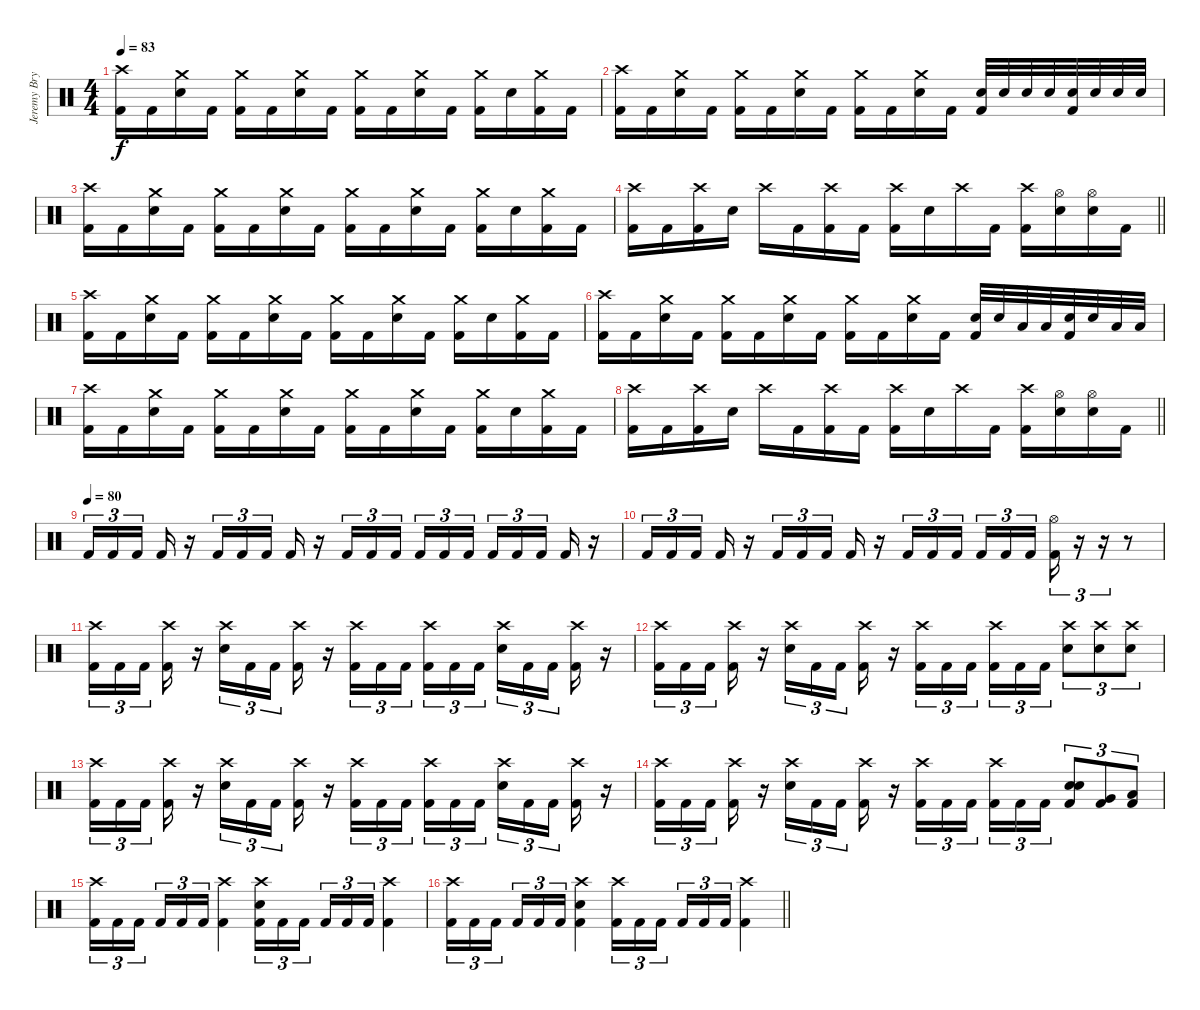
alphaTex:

\track ("Jeremy Bryan - Drums" "Jeremy Bry") {instrument percussion}
\staff {score}
\articulation defaults
\ts (4 4)
\tempo 83
\clef neutral
\ks c
("Crash high (hit)" "Kick (hit) 2").16{dy f} "Kick (hit) 2".16 ("Crash medium (hit)" "Electric Snare (hit)").16 "Kick (hit) 2".16 ("Crash medium (hit)" "Kick (hit) 2").16 "Kick (hit) 2".16 ("Crash medium (hit)" "Electric Snare (hit)").16 "Kick (hit) 2".16 ("Crash medium (hit)" "Kick (hit) 2").16 "Kick (hit) 2".16 ("Crash medium (hit)" "Electric Snare (hit)").16 "Kick (hit) 2".16 ("Crash medium (hit)" "Kick (hit) 2").16 "Electric Snare (hit)".16 ("Crash medium (hit)" "Kick (hit) 2").16 "Kick (hit) 2".16 |
("Crash high (hit)" "Kick (hit) 2").16 "Kick (hit) 2".16 ("Crash medium (hit)" "Electric Snare (hit)").16 "Kick (hit) 2".16 ("Crash medium (hit)" "Kick (hit) 2").16 "Kick (hit) 2".16 ("Crash medium (hit)" "Electric Snare (hit)").16 "Kick (hit) 2".16 ("Crash medium (hit)" "Kick (hit) 2").16 "Kick (hit) 2".16 ("Crash medium (hit)" "Electric Snare (hit)").16 "Kick (hit) 2".16 ("Electric Snare (hit)" "Kick (hit) 2").32 "Electric Snare (hit)".32 "Electric Snare (hit)".32 "Electric Snare (hit)".32 ("Electric Snare (hit)" "Kick (hit) 2").32 "Electric Snare (hit)".32 "Electric Snare (hit)".32 "Electric Snare (hit)".32 |
("Crash high (hit)" "Kick (hit) 2").16 "Kick (hit) 2".16 ("Crash medium (hit)" "Electric Snare (hit)").16 "Kick (hit) 2".16 ("Crash medium (hit)" "Kick (hit) 2").16 "Kick (hit) 2".16 ("Crash medium (hit)" "Electric Snare (hit)").16 "Kick (hit) 2".16 ("Crash medium (hit)" "Kick (hit) 2").16 "Kick (hit) 2".16 ("Crash medium (hit)" "Electric Snare (hit)").16 "Kick (hit) 2".16 ("Crash medium (hit)" "Kick (hit) 2").16 "Electric Snare (hit)".16 ("Crash medium (hit)" "Kick (hit) 2").16 "Kick (hit) 2".16 |
\barLineRight lightlight
("Crash high (hit)" "Kick (hit) 2").16 "Kick (hit) 2".16 ("Crash high (hit)" "Kick (hit) 2").16 "Electric Snare (hit)".16 "Crash high (hit)".16 "Kick (hit) 2".16 ("Crash high (hit)" "Kick (hit) 2").16 "Kick (hit) 2".16 ("Crash high (hit)" "Kick (hit) 2").16 "Electric Snare (hit)".16 "Crash high (hit)".16 "Kick (hit) 2".16 ("Crash high (hit)" "Kick (hit) 2").16 ("Hi-Hat (open)" "Electric Snare (hit)").16 ("Hi-Hat (open)" "Electric Snare (hit)").16 "Kick (hit) 2".16 |
("Crash high (hit)" "Kick (hit) 2").16 "Kick (hit) 2".16 ("Crash medium (hit)" "Electric Snare (hit)").16 "Kick (hit) 2".16 ("Crash medium (hit)" "Kick (hit) 2").16 "Kick (hit) 2".16 ("Crash medium (hit)" "Electric Snare (hit)").16 "Kick (hit) 2".16 ("Crash medium (hit)" "Kick (hit) 2").16 "Kick (hit) 2".16 ("Crash medium (hit)" "Electric Snare (hit)").16 "Kick (hit) 2".16 ("Crash medium (hit)" "Kick (hit) 2").16 "Electric Snare (hit)".16 ("Crash medium (hit)" "Kick (hit) 2").16 "Kick (hit) 2".16 |
("Crash high (hit)" "Kick (hit) 2").16 "Kick (hit) 2".16 ("Crash medium (hit)" "Electric Snare (hit)").16 "Kick (hit) 2".16 ("Crash medium (hit)" "Kick (hit) 2").16 "Kick (hit) 2".16 ("Crash medium (hit)" "Electric Snare (hit)").16 "Kick (hit) 2".16 ("Crash medium (hit)" "Kick (hit) 2").16 "Kick (hit) 2".16 ("Crash medium (hit)" "Electric Snare (hit)").16 "Kick (hit) 2".16 ("Electric Snare (hit)" "Kick (hit) 2").32 "Electric Snare (hit)".32 "Low Tom (hit)".32 "Low Tom (hit)".32 ("Electric Snare (hit)" "Kick (hit) 2").32 "Electric Snare (hit)".32 "Low Tom (hit)".32 "Low Tom (hit)".32 |
("Crash high (hit)" "Kick (hit) 2").16 "Kick (hit) 2".16 ("Crash medium (hit)" "Electric Snare (hit)").16 "Kick (hit) 2".16 ("Crash medium (hit)" "Kick (hit) 2").16 "Kick (hit) 2".16 ("Crash medium (hit)" "Electric Snare (hit)").16 "Kick (hit) 2".16 ("Crash medium (hit)" "Kick (hit) 2").16 "Kick (hit) 2".16 ("Crash medium (hit)" "Electric Snare (hit)").16 "Kick (hit) 2".16 ("Crash medium (hit)" "Kick (hit) 2").16 "Electric Snare (hit)".16 ("Crash medium (hit)" "Kick (hit) 2").16 "Kick (hit) 2".16 |
\barLineRight lightlight
("Crash high (hit)" "Kick (hit) 2").16 "Kick (hit) 2".16 ("Crash high (hit)" "Kick (hit) 2").16 "Electric Snare (hit)".16 "Crash high (hit)".16 "Kick (hit) 2".16 ("Crash high (hit)" "Kick (hit) 2").16 "Kick (hit) 2".16 ("Crash high (hit)" "Kick (hit) 2").16 "Electric Snare (hit)".16 "Crash high (hit)".16 "Kick (hit) 2".16 ("Crash high (hit)" "Kick (hit) 2").16 ("Hi-Hat (open)" "Electric Snare (hit)").16 ("Hi-Hat (open)" "Electric Snare (hit)").16 "Kick (hit) 2".16 |
\tempo (80)
"Kick (hit) 2".16{tu (3 2)} "Kick (hit) 2".16{tu (3 2)} "Kick (hit) 2".16{tu (3 2) beam splitsecondary} "Kick (hit) 2".16 r.16 "Kick (hit) 2".16{tu (3 2)} "Kick (hit) 2".16{tu (3 2)} "Kick (hit) 2".16{tu (3 2) beam splitsecondary} "Kick (hit) 2".16 r.16 "Kick (hit) 2".16{tu (3 2)} "Kick (hit) 2".16{tu (3 2)} "Kick (hit) 2".16{tu (3 2) beam splitsecondary} "Kick (hit) 2".16{tu (3 2)} "Kick (hit) 2".16{tu (3 2)} "Kick (hit) 2".16{tu (3 2)} "Kick (hit) 2".16{tu (3 2)} "Kick (hit) 2".16{tu (3 2)} "Kick (hit) 2".16{tu (3 2) beam splitsecondary} "Kick (hit) 2".16 r.16 |
"Kick (hit) 2".16{tu (3 2)} "Kick (hit) 2".16{tu (3 2)} "Kick (hit) 2".16{tu (3 2) beam splitsecondary} "Kick (hit) 2".16 r.16 "Kick (hit) 2".16{tu (3 2)} "Kick (hit) 2".16{tu (3 2)} "Kick (hit) 2".16{tu (3 2) beam splitsecondary} "Kick (hit) 2".16 r.16 "Kick (hit) 2".16{tu (3 2)} "Kick (hit) 2".16{tu (3 2)} "Kick (hit) 2".16{tu (3 2) beam splitsecondary} "Kick (hit) 2".16{tu (3 2)} "Kick (hit) 2".16{tu (3 2)} "Kick (hit) 2".16{tu (3 2)} ("Hi-Hat (open)" "Kick (hit) 2").16{tu (3 2)} r.16{tu (3 2)} r.16{tu (3 2)} r.8 |
("Crash high (hit)" "Kick (hit) 2").16{tu (3 2)} "Kick (hit) 2".16{tu (3 2)} "Kick (hit) 2".16{tu (3 2) beam splitsecondary} ("Crash high (hit)" "Kick (hit) 2").16 r.16 ("Crash high (hit)" "Electric Snare (hit)").16{tu (3 2)} "Kick (hit) 2".16{tu (3 2)} "Kick (hit) 2".16{tu (3 2) beam splitsecondary} ("Crash high (hit)" "Kick (hit) 2").16 r.16 ("Crash high (hit)" "Kick (hit) 2").16{tu (3 2)} "Kick (hit) 2".16{tu (3 2)} "Kick (hit) 2".16{tu (3 2) beam splitsecondary} ("Crash high (hit)" "Kick (hit) 2").16{tu (3 2)} "Kick (hit) 2".16{tu (3 2)} "Kick (hit) 2".16{tu (3 2)} ("Crash high (hit)" "Electric Snare (hit)").16{tu (3 2)} "Kick (hit) 2".16{tu (3 2)} "Kick (hit) 2".16{tu (3 2) beam splitsecondary} ("Crash high (hit)" "Kick (hit) 2").16 r.16 |
("Crash high (hit)" "Kick (hit) 2").16{tu (3 2)} "Kick (hit) 2".16{tu (3 2)} "Kick (hit) 2".16{tu (3 2) beam splitsecondary} ("Crash high (hit)" "Kick (hit) 2").16 r.16 ("Crash high (hit)" "Electric Snare (hit)").16{tu (3 2)} "Kick (hit) 2".16{tu (3 2)} "Kick (hit) 2".16{tu (3 2) beam splitsecondary} ("Crash high (hit)" "Kick (hit) 2").16 r.16 ("Crash high (hit)" "Kick (hit) 2").16{tu (3 2)} "Kick (hit) 2".16{tu (3 2)} "Kick (hit) 2".16{tu (3 2) beam splitsecondary} ("Crash high (hit)" "Kick (hit) 2").16{tu (3 2)} "Kick (hit) 2".16{tu (3 2)} "Kick (hit) 2".16{tu (3 2)} ("Crash high (hit)" "Electric Snare (hit)").8{tu (3 2)} ("Crash high (hit)" "Electric Snare (hit)").8{tu (3 2)} ("Crash high (hit)" "Electric Snare (hit)").8{tu (3 2)} |
("Crash high (hit)" "Kick (hit) 2").16{tu (3 2)} "Kick (hit) 2".16{tu (3 2)} "Kick (hit) 2".16{tu (3 2) beam splitsecondary} ("Crash high (hit)" "Kick (hit) 2").16 r.16 ("Crash high (hit)" "Electric Snare (hit)").16{tu (3 2)} "Kick (hit) 2".16{tu (3 2)} "Kick (hit) 2".16{tu (3 2) beam splitsecondary} ("Crash high (hit)" "Kick (hit) 2").16 r.16 ("Crash high (hit)" "Kick (hit) 2").16{tu (3 2)} "Kick (hit) 2".16{tu (3 2)} "Kick (hit) 2".16{tu (3 2) beam splitsecondary} ("Crash high (hit)" "Kick (hit) 2").16{tu (3 2)} "Kick (hit) 2".16{tu (3 2)} "Kick (hit) 2".16{tu (3 2)} ("Crash high (hit)" "Electric Snare (hit)").16{tu (3 2)} "Kick (hit) 2".16{tu (3 2)} "Kick (hit) 2".16{tu (3 2) beam splitsecondary} ("Crash high (hit)" "Kick (hit) 2").16 r.16 |
("Crash high (hit)" "Kick (hit) 2").16{tu (3 2)} "Kick (hit) 2".16{tu (3 2)} "Kick (hit) 2".16{tu (3 2) beam splitsecondary} ("Crash high (hit)" "Kick (hit) 2").16 r.16 ("Crash high (hit)" "Electric Snare (hit)").16{tu (3 2)} "Kick (hit) 2".16{tu (3 2)} "Kick (hit) 2".16{tu (3 2) beam splitsecondary} ("Crash high (hit)" "Kick (hit) 2").16 r.16 ("Crash high (hit)" "Kick (hit) 2").16{tu (3 2)} "Kick (hit) 2".16{tu (3 2)} "Kick (hit) 2".16{tu (3 2) beam splitsecondary} ("Crash high (hit)" "Kick (hit) 2").16{tu (3 2)} "Kick (hit) 2".16{tu (3 2)} "Kick (hit) 2".16{tu (3 2)} ("Electric Snare (hit)" "Electric Snare (hit)" "Kick (hit) 2").8{tu (3 2)} ("Very Low Tom (hit)" "Kick (hit) 2").8{tu (3 2)} ("Low Floor Tom (hit)" "Kick (hit) 2").8{tu (3 2)} |
("Crash high (hit)" "Kick (hit) 2").16{tu (3 2)} "Kick (hit) 2".16{tu (3 2)} "Kick (hit) 2".16{tu (3 2) beam splitsecondary} "Kick (hit) 2".16{tu (3 2)} "Kick (hit) 2".16{tu (3 2)} "Kick (hit) 2".16{tu (3 2)} ("Crash high (hit)" "Kick (hit) 2").4 ("Crash high (hit)" "Electric Snare (hit)" "Kick (hit) 2").16{tu (3 2)} "Kick (hit) 2".16{tu (3 2)} "Kick (hit) 2".16{tu (3 2) beam splitsecondary} "Kick (hit) 2".16{tu (3 2)} "Kick (hit) 2".16{tu (3 2)} "Kick (hit) 2".16{tu (3 2)} ("Crash high (hit)" "Kick (hit) 2").4 |
\barLineRight lightlight
("Crash high (hit)" "Kick (hit) 2").16{tu (3 2)} "Kick (hit) 2".16{tu (3 2)} "Kick (hit) 2".16{tu (3 2) beam splitsecondary} "Kick (hit) 2".16{tu (3 2)} "Kick (hit) 2".16{tu (3 2)} "Kick (hit) 2".16{tu (3 2)} ("Crash high (hit)" "Electric Snare (hit)" "Kick (hit) 2").4 ("Crash high (hit)" "Kick (hit) 2").16{tu (3 2)} "Kick (hit) 2".16{tu (3 2)} "Kick (hit) 2".16{tu (3 2) beam splitsecondary} "Kick (hit) 2".16{tu (3 2)} "Kick (hit) 2".16{tu (3 2)} "Kick (hit) 2".16{tu (3 2)} ("Crash high (hit)" "Kick (hit) 2").4
